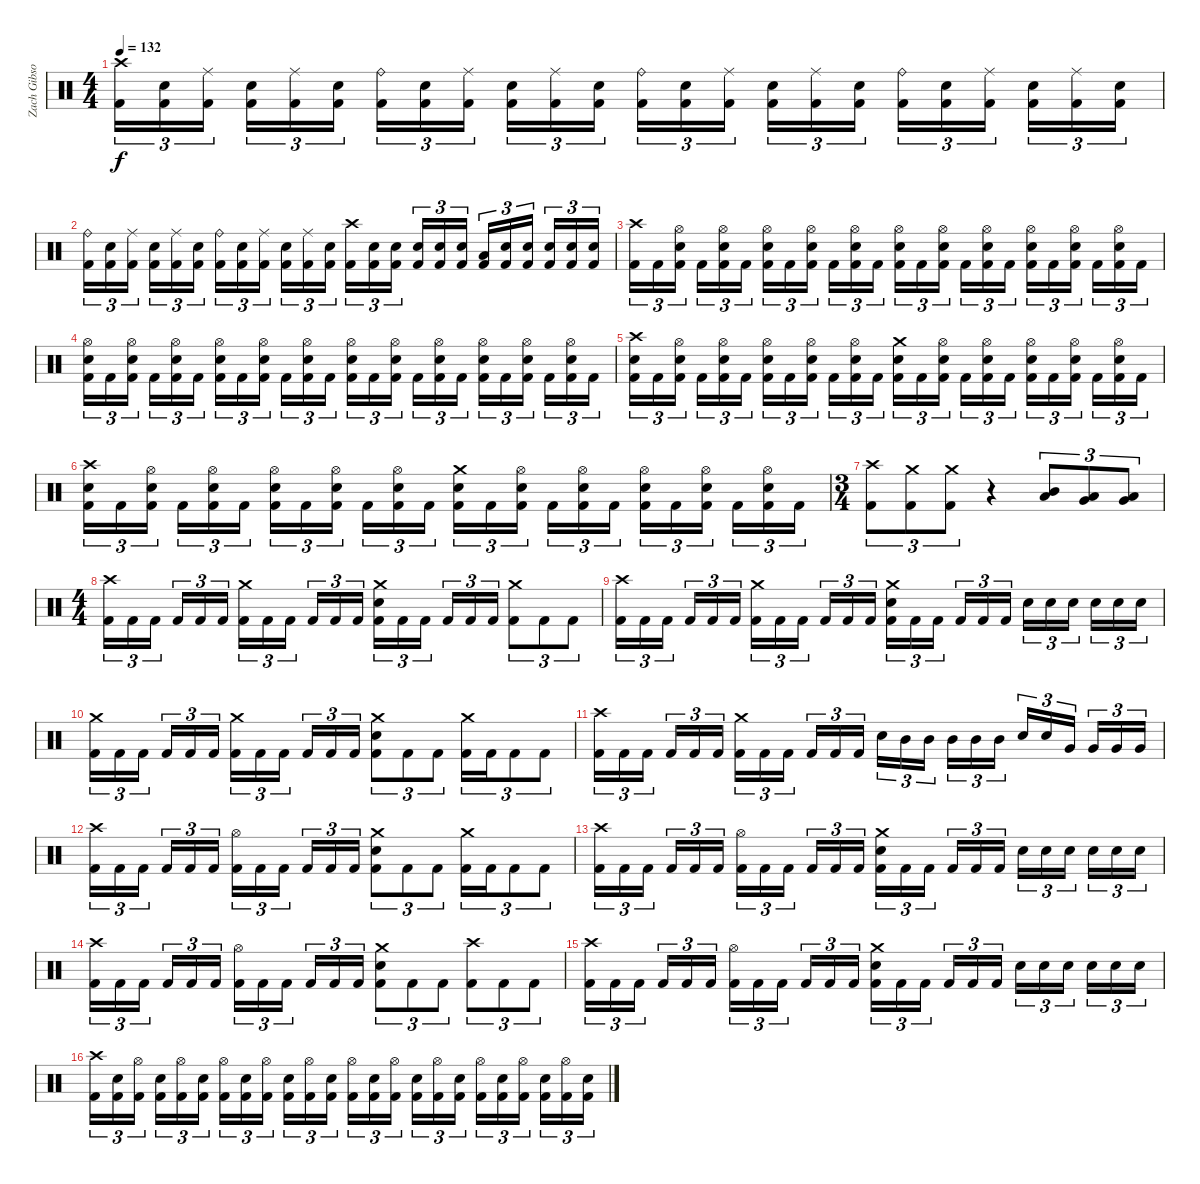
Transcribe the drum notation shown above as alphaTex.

\track ("Zach Gibson (Drums)" "Zach Gibso") {instrument percussion}
\staff {score}
\articulation defaults
\ts (4 4)
\tempo 132
\clef neutral
\ks c
("Crash high (hit)" "Kick (hit) 2").16{tu (3 2) dy f} ("Kick (hit) 2" "Snare (hit) 2").16{tu (3 2)} ("Ride (middle)" "Kick (hit) 2").16{tu (3 2)} ("Kick (hit) 2" "Snare (hit) 2").16{tu (3 2)} ("Ride (middle)" "Kick (hit) 2").16{tu (3 2)} ("Kick (hit) 2" "Snare (hit) 2").16{tu (3 2)} ("Ride (bell)" "Kick (hit) 2").16{tu (3 2)} ("Kick (hit) 2" "Snare (hit) 2").16{tu (3 2)} ("Ride (middle)" "Kick (hit) 2").16{tu (3 2)} ("Kick (hit) 2" "Snare (hit) 2").16{tu (3 2)} ("Ride (middle)" "Kick (hit) 2").16{tu (3 2)} ("Kick (hit) 2" "Snare (hit) 2").16{tu (3 2)} ("Ride (bell)" "Kick (hit) 2").16{tu (3 2)} ("Kick (hit) 2" "Snare (hit) 2").16{tu (3 2)} ("Ride (middle)" "Kick (hit) 2").16{tu (3 2)} ("Kick (hit) 2" "Snare (hit) 2").16{tu (3 2)} ("Ride (middle)" "Kick (hit) 2").16{tu (3 2)} ("Kick (hit) 2" "Snare (hit) 2").16{tu (3 2)} ("Ride (bell)" "Kick (hit) 2").16{tu (3 2)} ("Kick (hit) 2" "Snare (hit) 2").16{tu (3 2)} ("Ride (middle)" "Kick (hit) 2").16{tu (3 2)} ("Kick (hit) 2" "Snare (hit) 2").16{tu (3 2)} ("Ride (middle)" "Kick (hit) 2").16{tu (3 2)} ("Kick (hit) 2" "Snare (hit) 2").16{tu (3 2)} |
("Ride (bell)" "Kick (hit) 2").16{tu (3 2)} ("Kick (hit) 2" "Snare (hit) 2").16{tu (3 2)} ("Ride (middle)" "Kick (hit) 2").16{tu (3 2)} ("Kick (hit) 2" "Snare (hit) 2").16{tu (3 2)} ("Ride (middle)" "Kick (hit) 2").16{tu (3 2)} ("Kick (hit) 2" "Snare (hit) 2").16{tu (3 2)} ("Ride (bell)" "Kick (hit) 2").16{tu (3 2)} ("Kick (hit) 2" "Snare (hit) 2").16{tu (3 2)} ("Ride (middle)" "Kick (hit) 2").16{tu (3 2)} ("Kick (hit) 2" "Snare (hit) 2").16{tu (3 2)} ("Ride (middle)" "Kick (hit) 2").16{tu (3 2)} ("Kick (hit) 2" "Snare (hit) 2").16{tu (3 2)} ("Crash high (hit)" "Kick (hit) 2").16{tu (3 2)} ("Snare (hit) 2" "Kick (hit) 2").16{tu (3 2)} ("Snare (hit) 2" "Kick (hit) 2").16{tu (3 2)} ("Snare (hit) 2" "Kick (hit) 2").16{tu (3 2)} ("Snare (hit) 2" "Kick (hit) 2").16{tu (3 2)} ("Snare (hit) 2" "Kick (hit) 2").16{tu (3 2)} ("Low Tom (hit)" "Kick (hit) 2").16{tu (3 2)} ("Snare (hit) 2" "Kick (hit) 2").16{tu (3 2)} ("Snare (hit) 2" "Kick (hit) 2").16{tu (3 2)} ("Snare (hit) 2" "Kick (hit) 2").16{tu (3 2)} ("Snare (hit) 2" "Kick (hit) 2").16{tu (3 2)} ("Snare (hit) 2" "Kick (hit) 2").16{tu (3 2)} |
("Crash high (hit)" "Kick (hit) 2").16{tu (3 2)} "Kick (hit) 2".16{tu (3 2)} ("Hi-Hat (open)" "Snare (hit) 2" "Kick (hit) 2").16{tu (3 2)} "Kick (hit) 2".16{tu (3 2)} ("Hi-Hat (open)" "Snare (hit) 2" "Kick (hit) 2").16{tu (3 2)} "Kick (hit) 2".16{tu (3 2)} ("Hi-Hat (open)" "Snare (hit) 2" "Kick (hit) 2").16{tu (3 2)} "Kick (hit) 2".16{tu (3 2)} ("Hi-Hat (open)" "Snare (hit) 2" "Kick (hit) 2").16{tu (3 2)} "Kick (hit) 2".16{tu (3 2)} ("Hi-Hat (open)" "Snare (hit) 2" "Kick (hit) 2").16{tu (3 2)} "Kick (hit) 2".16{tu (3 2)} ("Hi-Hat (open)" "Snare (hit) 2" "Kick (hit) 2").16{tu (3 2)} "Kick (hit) 2".16{tu (3 2)} ("Hi-Hat (open)" "Snare (hit) 2" "Kick (hit) 2").16{tu (3 2)} "Kick (hit) 2".16{tu (3 2)} ("Hi-Hat (open)" "Snare (hit) 2" "Kick (hit) 2").16{tu (3 2)} "Kick (hit) 2".16{tu (3 2)} ("Hi-Hat (open)" "Snare (hit) 2" "Kick (hit) 2").16{tu (3 2)} "Kick (hit) 2".16{tu (3 2)} ("Hi-Hat (open)" "Snare (hit) 2" "Kick (hit) 2").16{tu (3 2)} "Kick (hit) 2".16{tu (3 2)} ("Hi-Hat (open)" "Snare (hit) 2" "Kick (hit) 2").16{tu (3 2)} "Kick (hit) 2".16{tu (3 2)} |
("Hi-Hat (open)" "Snare (hit) 2" "Kick (hit) 2").16{tu (3 2)} "Kick (hit) 2".16{tu (3 2)} ("Hi-Hat (open)" "Snare (hit) 2" "Kick (hit) 2").16{tu (3 2)} "Kick (hit) 2".16{tu (3 2)} ("Hi-Hat (open)" "Snare (hit) 2" "Kick (hit) 2").16{tu (3 2)} "Kick (hit) 2".16{tu (3 2)} ("Hi-Hat (open)" "Snare (hit) 2" "Kick (hit) 2").16{tu (3 2)} "Kick (hit) 2".16{tu (3 2)} ("Hi-Hat (open)" "Snare (hit) 2" "Kick (hit) 2").16{tu (3 2)} "Kick (hit) 2".16{tu (3 2)} ("Hi-Hat (open)" "Snare (hit) 2" "Kick (hit) 2").16{tu (3 2)} "Kick (hit) 2".16{tu (3 2)} ("Hi-Hat (open)" "Snare (hit) 2" "Kick (hit) 2").16{tu (3 2)} "Kick (hit) 2".16{tu (3 2)} ("Hi-Hat (open)" "Snare (hit) 2" "Kick (hit) 2").16{tu (3 2)} "Kick (hit) 2".16{tu (3 2)} ("Hi-Hat (open)" "Snare (hit) 2" "Kick (hit) 2").16{tu (3 2)} "Kick (hit) 2".16{tu (3 2)} ("Hi-Hat (open)" "Snare (hit) 2" "Kick (hit) 2").16{tu (3 2)} "Kick (hit) 2".16{tu (3 2)} ("Hi-Hat (open)" "Snare (hit) 2" "Kick (hit) 2").16{tu (3 2)} "Kick (hit) 2".16{tu (3 2)} ("Hi-Hat (open)" "Snare (hit) 2" "Kick (hit) 2").16{tu (3 2)} "Kick (hit) 2".16{tu (3 2)} |
("Crash high (hit)" "Snare (hit) 2" "Kick (hit) 2").16{tu (3 2)} "Kick (hit) 2".16{tu (3 2)} ("Hi-Hat (open)" "Snare (hit) 2" "Kick (hit) 2").16{tu (3 2)} "Kick (hit) 2".16{tu (3 2)} ("Hi-Hat (open)" "Snare (hit) 2" "Kick (hit) 2").16{tu (3 2)} "Kick (hit) 2".16{tu (3 2)} ("Hi-Hat (open)" "Snare (hit) 2" "Kick (hit) 2").16{tu (3 2)} "Kick (hit) 2".16{tu (3 2)} ("Hi-Hat (open)" "Snare (hit) 2" "Kick (hit) 2").16{tu (3 2)} "Kick (hit) 2".16{tu (3 2)} ("Hi-Hat (open)" "Snare (hit) 2" "Kick (hit) 2").16{tu (3 2)} "Kick (hit) 2".16{tu (3 2)} ("Crash medium (hit)" "Snare (hit) 2" "Kick (hit) 2").16{tu (3 2)} "Kick (hit) 2".16{tu (3 2)} ("Hi-Hat (open)" "Snare (hit) 2" "Kick (hit) 2").16{tu (3 2)} "Kick (hit) 2".16{tu (3 2)} ("Hi-Hat (open)" "Snare (hit) 2" "Kick (hit) 2").16{tu (3 2)} "Kick (hit) 2".16{tu (3 2)} ("Hi-Hat (open)" "Snare (hit) 2" "Kick (hit) 2").16{tu (3 2)} "Kick (hit) 2".16{tu (3 2)} ("Hi-Hat (open)" "Snare (hit) 2" "Kick (hit) 2").16{tu (3 2)} "Kick (hit) 2".16{tu (3 2)} ("Hi-Hat (open)" "Snare (hit) 2" "Kick (hit) 2").16{tu (3 2)} "Kick (hit) 2".16{tu (3 2)} |
("Crash high (hit)" "Snare (hit) 2" "Kick (hit) 2").16{tu (3 2)} "Kick (hit) 2".16{tu (3 2)} ("Hi-Hat (open)" "Snare (hit) 2" "Kick (hit) 2").16{tu (3 2)} "Kick (hit) 2".16{tu (3 2)} ("Hi-Hat (open)" "Snare (hit) 2" "Kick (hit) 2").16{tu (3 2)} "Kick (hit) 2".16{tu (3 2)} ("Hi-Hat (open)" "Snare (hit) 2" "Kick (hit) 2").16{tu (3 2)} "Kick (hit) 2".16{tu (3 2)} ("Hi-Hat (open)" "Snare (hit) 2" "Kick (hit) 2").16{tu (3 2)} "Kick (hit) 2".16{tu (3 2)} ("Hi-Hat (open)" "Snare (hit) 2" "Kick (hit) 2").16{tu (3 2)} "Kick (hit) 2".16{tu (3 2)} ("Crash medium (hit)" "Snare (hit) 2" "Kick (hit) 2").16{tu (3 2)} "Kick (hit) 2".16{tu (3 2)} ("Hi-Hat (open)" "Snare (hit) 2" "Kick (hit) 2").16{tu (3 2)} "Kick (hit) 2".16{tu (3 2)} ("Hi-Hat (open)" "Snare (hit) 2" "Kick (hit) 2").16{tu (3 2)} "Kick (hit) 2".16{tu (3 2)} ("Hi-Hat (open)" "Snare (hit) 2" "Kick (hit) 2").16{tu (3 2)} "Kick (hit) 2".16{tu (3 2)} ("Hi-Hat (open)" "Snare (hit) 2" "Kick (hit) 2").16{tu (3 2)} "Kick (hit) 2".16{tu (3 2)} ("Hi-Hat (open)" "Snare (hit) 2" "Kick (hit) 2").16{tu (3 2)} "Kick (hit) 2".16{tu (3 2)} |
\ts (3 4)
("Crash high (hit)" "Kick (hit) 2").8{tu (3 2)} ("Crash medium (hit)" "Kick (hit) 2").8{tu (3 2)} ("Crash medium (hit)" "Kick (hit) 2").8{tu (3 2)} r.4 ("Low Tom (hit)" "Mid Tom (hit)").8{tu (3 2)} ("Low Tom (hit)" "Very Low Tom (hit)").8{tu (3 2)} ("Very Low Tom (hit)" "Low Floor Tom (hit)").8{tu (3 2)} |
\ts (4 4)
("Crash high (hit)" "Kick (hit) 2").16{tu (3 2)} "Kick (hit) 2".16{tu (3 2)} "Kick (hit) 2".16{tu (3 2)} "Kick (hit) 2".16{tu (3 2)} "Kick (hit) 2".16{tu (3 2)} "Kick (hit) 2".16{tu (3 2)} ("Crash medium (hit)" "Kick (hit) 2").16{tu (3 2)} "Kick (hit) 2".16{tu (3 2)} "Kick (hit) 2".16{tu (3 2)} "Kick (hit) 2".16{tu (3 2)} "Kick (hit) 2".16{tu (3 2)} "Kick (hit) 2".16{tu (3 2)} ("Crash medium (hit)" "Snare (hit) 2" "Kick (hit) 2").16{tu (3 2)} "Kick (hit) 2".16{tu (3 2)} "Kick (hit) 2".16{tu (3 2)} "Kick (hit) 2".16{tu (3 2)} "Kick (hit) 2".16{tu (3 2)} "Kick (hit) 2".16{tu (3 2)} ("Crash medium (hit)" "Kick (hit) 2").8{tu (3 2)} "Kick (hit) 2".8{tu (3 2)} "Kick (hit) 2".8{tu (3 2)} |
("Crash high (hit)" "Kick (hit) 2").16{tu (3 2)} "Kick (hit) 2".16{tu (3 2)} "Kick (hit) 2".16{tu (3 2)} "Kick (hit) 2".16{tu (3 2)} "Kick (hit) 2".16{tu (3 2)} "Kick (hit) 2".16{tu (3 2)} ("Crash medium (hit)" "Kick (hit) 2").16{tu (3 2)} "Kick (hit) 2".16{tu (3 2)} "Kick (hit) 2".16{tu (3 2)} "Kick (hit) 2".16{tu (3 2)} "Kick (hit) 2".16{tu (3 2)} "Kick (hit) 2".16{tu (3 2)} ("Crash medium (hit)" "Snare (hit) 2" "Kick (hit) 2").16{tu (3 2)} "Kick (hit) 2".16{tu (3 2)} "Kick (hit) 2".16{tu (3 2)} "Kick (hit) 2".16{tu (3 2)} "Kick (hit) 2".16{tu (3 2)} "Kick (hit) 2".16{tu (3 2)} "Snare (hit) 2".16{tu (3 2)} "Snare (hit) 2".16{tu (3 2)} "Snare (hit) 2".16{tu (3 2)} "Snare (hit) 2".16{tu (3 2)} "Snare (hit) 2".16{tu (3 2)} "Snare (hit) 2".16{tu (3 2)} |
("Crash medium (hit)" "Kick (hit) 2").16{tu (3 2)} "Kick (hit) 2".16{tu (3 2)} "Kick (hit) 2".16{tu (3 2)} "Kick (hit) 2".16{tu (3 2)} "Kick (hit) 2".16{tu (3 2)} "Kick (hit) 2".16{tu (3 2)} ("Crash medium (hit)" "Kick (hit) 2").16{tu (3 2)} "Kick (hit) 2".16{tu (3 2)} "Kick (hit) 2".16{tu (3 2)} "Kick (hit) 2".16{tu (3 2)} "Kick (hit) 2".16{tu (3 2)} "Kick (hit) 2".16{tu (3 2)} ("Crash medium (hit)" "Snare (hit) 2" "Kick (hit) 2").8{tu (3 2)} "Kick (hit) 2".8{tu (3 2)} "Kick (hit) 2".8{tu (3 2)} ("Crash medium (hit)" "Kick (hit) 2").16{tu (3 2)} "Kick (hit) 2".16{tu (3 2)} "Kick (hit) 2".8{tu (3 2)} "Kick (hit) 2".8{tu (3 2)} |
("Crash high (hit)" "Kick (hit) 2").16{tu (3 2)} "Kick (hit) 2".16{tu (3 2)} "Kick (hit) 2".16{tu (3 2)} "Kick (hit) 2".16{tu (3 2)} "Kick (hit) 2".16{tu (3 2)} "Kick (hit) 2".16{tu (3 2)} ("Crash medium (hit)" "Kick (hit) 2").16{tu (3 2)} "Kick (hit) 2".16{tu (3 2)} "Kick (hit) 2".16{tu (3 2)} "Kick (hit) 2".16{tu (3 2)} "Kick (hit) 2".16{tu (3 2)} "Kick (hit) 2".16{tu (3 2)} "Snare (hit) 2".16{tu (3 2)} "Mid Tom (hit)".16{tu (3 2)} "Mid Tom (hit)".16{tu (3 2)} "Mid Tom (hit)".16{tu (3 2)} "Mid Tom (hit)".16{tu (3 2)} "Mid Tom (hit)".16{tu (3 2)} "Snare (hit) 2".16{tu (3 2)} "Snare (hit) 2".16{tu (3 2)} "Very Low Tom (hit)".16{tu (3 2)} "Very Low Tom (hit)".16{tu (3 2)} "Very Low Tom (hit)".16{tu (3 2)} "Very Low Tom (hit)".16{tu (3 2)} |
("Crash high (hit)" "Kick (hit) 2").16{tu (3 2)} "Kick (hit) 2".16{tu (3 2)} "Kick (hit) 2".16{tu (3 2)} "Kick (hit) 2".16{tu (3 2)} "Kick (hit) 2".16{tu (3 2)} "Kick (hit) 2".16{tu (3 2)} ("Hi-Hat (open)" "Kick (hit) 2").16{tu (3 2)} "Kick (hit) 2".16{tu (3 2)} "Kick (hit) 2".16{tu (3 2)} "Kick (hit) 2".16{tu (3 2)} "Kick (hit) 2".16{tu (3 2)} "Kick (hit) 2".16{tu (3 2)} ("Crash medium (hit)" "Snare (hit) 2" "Kick (hit) 2").8{tu (3 2)} "Kick (hit) 2".8{tu (3 2)} "Kick (hit) 2".8{tu (3 2)} ("Crash medium (hit)" "Kick (hit) 2").16{tu (3 2)} "Kick (hit) 2".16{tu (3 2)} "Kick (hit) 2".8{tu (3 2)} "Kick (hit) 2".8{tu (3 2)} |
("Crash high (hit)" "Kick (hit) 2").16{tu (3 2)} "Kick (hit) 2".16{tu (3 2)} "Kick (hit) 2".16{tu (3 2)} "Kick (hit) 2".16{tu (3 2)} "Kick (hit) 2".16{tu (3 2)} "Kick (hit) 2".16{tu (3 2)} ("Hi-Hat (open)" "Kick (hit) 2").16{tu (3 2)} "Kick (hit) 2".16{tu (3 2)} "Kick (hit) 2".16{tu (3 2)} "Kick (hit) 2".16{tu (3 2)} "Kick (hit) 2".16{tu (3 2)} "Kick (hit) 2".16{tu (3 2)} ("Crash medium (hit)" "Snare (hit) 2" "Kick (hit) 2").16{tu (3 2)} "Kick (hit) 2".16{tu (3 2)} "Kick (hit) 2".16{tu (3 2)} "Kick (hit) 2".16{tu (3 2)} "Kick (hit) 2".16{tu (3 2)} "Kick (hit) 2".16{tu (3 2)} "Snare (hit) 2".16{tu (3 2)} "Snare (hit) 2".16{tu (3 2)} "Snare (hit) 2".16{tu (3 2)} "Snare (hit) 2".16{tu (3 2)} "Snare (hit) 2".16{tu (3 2)} "Snare (hit) 2".16{tu (3 2)} |
("Crash high (hit)" "Kick (hit) 2").16{tu (3 2)} "Kick (hit) 2".16{tu (3 2)} "Kick (hit) 2".16{tu (3 2)} "Kick (hit) 2".16{tu (3 2)} "Kick (hit) 2".16{tu (3 2)} "Kick (hit) 2".16{tu (3 2)} ("Hi-Hat (open)" "Kick (hit) 2").16{tu (3 2)} "Kick (hit) 2".16{tu (3 2)} "Kick (hit) 2".16{tu (3 2)} "Kick (hit) 2".16{tu (3 2)} "Kick (hit) 2".16{tu (3 2)} "Kick (hit) 2".16{tu (3 2)} ("Crash medium (hit)" "Snare (hit) 2" "Kick (hit) 2").8{tu (3 2)} "Kick (hit) 2".8{tu (3 2)} "Kick (hit) 2".8{tu (3 2)} ("Crash high (hit)" "Kick (hit) 2").8{tu (3 2)} "Kick (hit) 2".8{tu (3 2)} "Kick (hit) 2".8{tu (3 2)} |
("Crash high (hit)" "Kick (hit) 2").16{tu (3 2)} "Kick (hit) 2".16{tu (3 2)} "Kick (hit) 2".16{tu (3 2)} "Kick (hit) 2".16{tu (3 2)} "Kick (hit) 2".16{tu (3 2)} "Kick (hit) 2".16{tu (3 2)} ("Hi-Hat (open)" "Kick (hit) 2").16{tu (3 2)} "Kick (hit) 2".16{tu (3 2)} "Kick (hit) 2".16{tu (3 2)} "Kick (hit) 2".16{tu (3 2)} "Kick (hit) 2".16{tu (3 2)} "Kick (hit) 2".16{tu (3 2)} ("Crash medium (hit)" "Snare (hit) 2" "Kick (hit) 2").16{tu (3 2)} "Kick (hit) 2".16{tu (3 2)} "Kick (hit) 2".16{tu (3 2)} "Kick (hit) 2".16{tu (3 2)} "Kick (hit) 2".16{tu (3 2)} "Kick (hit) 2".16{tu (3 2)} "Snare (hit) 2".16{tu (3 2)} "Snare (hit) 2".16{tu (3 2)} "Snare (hit) 2".16{tu (3 2)} "Snare (hit) 2".16{tu (3 2)} "Snare (hit) 2".16{tu (3 2)} "Snare (hit) 2".16{tu (3 2)} |
("Crash high (hit)" "Kick (hit) 2").16{tu (3 2)} ("Kick (hit) 2" "Snare (hit) 2").16{tu (3 2)} ("Hi-Hat (open)" "Kick (hit) 2").16{tu (3 2)} ("Kick (hit) 2" "Snare (hit) 2").16{tu (3 2)} ("Hi-Hat (open)" "Kick (hit) 2").16{tu (3 2)} ("Kick (hit) 2" "Snare (hit) 2").16{tu (3 2)} ("Hi-Hat (open)" "Kick (hit) 2").16{tu (3 2)} ("Kick (hit) 2" "Snare (hit) 2").16{tu (3 2)} ("Hi-Hat (open)" "Kick (hit) 2").16{tu (3 2)} ("Kick (hit) 2" "Snare (hit) 2").16{tu (3 2)} ("Hi-Hat (open)" "Kick (hit) 2").16{tu (3 2)} ("Kick (hit) 2" "Snare (hit) 2").16{tu (3 2)} ("Hi-Hat (open)" "Kick (hit) 2").16{tu (3 2)} ("Kick (hit) 2" "Snare (hit) 2").16{tu (3 2)} ("Hi-Hat (open)" "Kick (hit) 2").16{tu (3 2)} ("Kick (hit) 2" "Snare (hit) 2").16{tu (3 2)} ("Hi-Hat (open)" "Kick (hit) 2").16{tu (3 2)} ("Kick (hit) 2" "Snare (hit) 2").16{tu (3 2)} ("Hi-Hat (open)" "Kick (hit) 2").16{tu (3 2)} ("Kick (hit) 2" "Snare (hit) 2").16{tu (3 2)} ("Hi-Hat (open)" "Kick (hit) 2").16{tu (3 2)} ("Kick (hit) 2" "Snare (hit) 2").16{tu (3 2)} ("Hi-Hat (open)" "Kick (hit) 2").16{tu (3 2)} ("Kick (hit) 2" "Snare (hit) 2").16{tu (3 2)}
